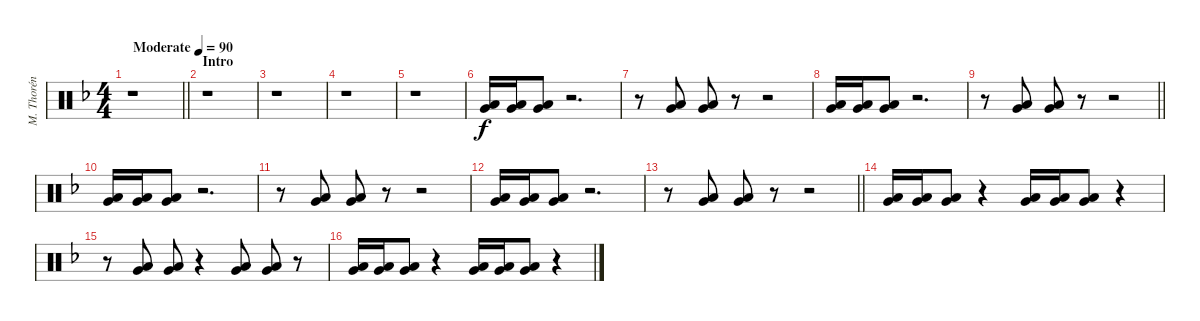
\track ("M. Thorén (Drums)" "M. Thorén ") {instrument percussion}
\staff {score}
\articulation defaults
\ts (4 4)
\tempo (90 "Moderate")
\clef neutral
\barLineRight lightlight
\ks dminor
r.1{dy f} |
\section ("" "Intro")
r.1 |
r.1 |
r.1 |
r.1 |
("Very Low Tom (hit)" "Low Floor Tom (hit)").16 ("Very Low Tom (hit)" "Low Floor Tom (hit)").16 ("Very Low Tom (hit)" "Low Floor Tom (hit)").8 r.2{d} |
r.8 ("Very Low Tom (hit)" "Low Floor Tom (hit)").8 ("Very Low Tom (hit)" "Low Floor Tom (hit)").8 r.8 r.2 |
("Very Low Tom (hit)" "Low Floor Tom (hit)").16 ("Very Low Tom (hit)" "Low Floor Tom (hit)").16 ("Very Low Tom (hit)" "Low Floor Tom (hit)").8 r.2{d} |
\barLineRight lightlight
r.8 ("Very Low Tom (hit)" "Low Floor Tom (hit)").8 ("Very Low Tom (hit)" "Low Floor Tom (hit)").8 r.8 r.2 |
("Very Low Tom (hit)" "Low Floor Tom (hit)").16 ("Very Low Tom (hit)" "Low Floor Tom (hit)").16 ("Very Low Tom (hit)" "Low Floor Tom (hit)").8 r.2{d} |
r.8 ("Very Low Tom (hit)" "Low Floor Tom (hit)").8 ("Very Low Tom (hit)" "Low Floor Tom (hit)").8 r.8 r.2 |
("Very Low Tom (hit)" "Low Floor Tom (hit)").16 ("Very Low Tom (hit)" "Low Floor Tom (hit)").16 ("Very Low Tom (hit)" "Low Floor Tom (hit)").8 r.2{d} |
\barLineRight lightlight
r.8 ("Very Low Tom (hit)" "Low Floor Tom (hit)").8 ("Very Low Tom (hit)" "Low Floor Tom (hit)").8 r.8 r.2 |
("Very Low Tom (hit)" "Low Floor Tom (hit)").16 ("Very Low Tom (hit)" "Low Floor Tom (hit)").16 ("Very Low Tom (hit)" "Low Floor Tom (hit)").8 r.4 ("Very Low Tom (hit)" "Low Floor Tom (hit)").16 ("Very Low Tom (hit)" "Low Floor Tom (hit)").16 ("Very Low Tom (hit)" "Low Floor Tom (hit)").8 r.4 |
r.8 ("Very Low Tom (hit)" "Low Floor Tom (hit)").8 ("Very Low Tom (hit)" "Low Floor Tom (hit)").8 r.4 ("Very Low Tom (hit)" "Low Floor Tom (hit)").8 ("Very Low Tom (hit)" "Low Floor Tom (hit)").8 r.8 |
("Very Low Tom (hit)" "Low Floor Tom (hit)").16 ("Very Low Tom (hit)" "Low Floor Tom (hit)").16 ("Very Low Tom (hit)" "Low Floor Tom (hit)").8 r.4 ("Very Low Tom (hit)" "Low Floor Tom (hit)").16 ("Very Low Tom (hit)" "Low Floor Tom (hit)").16 ("Very Low Tom (hit)" "Low Floor Tom (hit)").8 r.4
